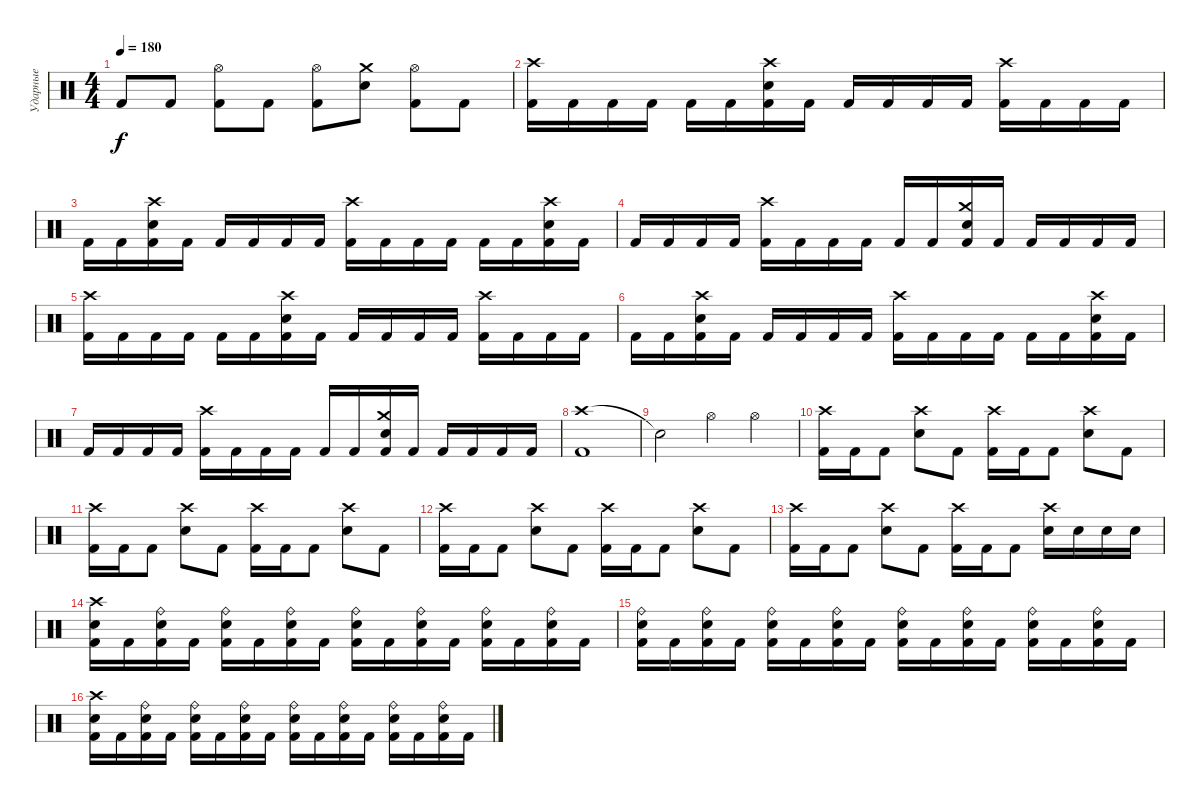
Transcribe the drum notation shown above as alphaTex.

\track ("Ударные" "Ударные") {instrument percussion}
\staff {score}
\articulation defaults
\ts (4 4)
\tempo 180
\clef neutral
\ks c "Kick (hit) 2".8{dy f} "Kick (hit) 2".8
("Hi-Hat (open)" "Kick (hit) 2").8 "Kick (hit) 2".8 ("Hi-Hat (open)" "Kick (hit) 2").8 ("Crash medium (hit)" "Electric Snare (hit)").8 ("Hi-Hat (open)" "Kick (hit) 2").8 "Kick (hit) 2".8 |
("Crash high (hit)" "Kick (hit) 2").16 "Kick (hit) 2".16 "Kick (hit) 2".16 "Kick (hit) 2".16 "Kick (hit) 2".16 "Kick (hit) 2".16 ("Crash high (hit)" "Electric Snare (hit)" "Kick (hit) 2").16 "Kick (hit) 2".16 "Kick (hit) 2".16 "Kick (hit) 2".16 "Kick (hit) 2".16 "Kick (hit) 2".16 ("Crash high (hit)" "Kick (hit) 2").16 "Kick (hit) 2".16 "Kick (hit) 2".16 "Kick (hit) 2".16 |
"Kick (hit) 2".16 "Kick (hit) 2".16 ("Crash high (hit)" "Electric Snare (hit)" "Kick (hit) 2").16 "Kick (hit) 2".16 "Kick (hit) 2".16 "Kick (hit) 2".16 "Kick (hit) 2".16 "Kick (hit) 2".16 ("Crash high (hit)" "Kick (hit) 2").16 "Kick (hit) 2".16 "Kick (hit) 2".16 "Kick (hit) 2".16 "Kick (hit) 2".16 "Kick (hit) 2".16 ("Crash high (hit)" "Electric Snare (hit)" "Kick (hit) 2").16 "Kick (hit) 2".16 |
"Kick (hit) 2".16 "Kick (hit) 2".16 "Kick (hit) 2".16 "Kick (hit) 2".16 ("Crash high (hit)" "Kick (hit) 2").16 "Kick (hit) 2".16 "Kick (hit) 2".16 "Kick (hit) 2".16 "Kick (hit) 2".16 "Kick (hit) 2".16 ("Crash medium (hit)" "Electric Snare (hit)" "Kick (hit) 2").16 "Kick (hit) 2".16 "Kick (hit) 2".16 "Kick (hit) 2".16 "Kick (hit) 2".16 "Kick (hit) 2".16 |
("Crash high (hit)" "Kick (hit) 2").16 "Kick (hit) 2".16 "Kick (hit) 2".16 "Kick (hit) 2".16 "Kick (hit) 2".16 "Kick (hit) 2".16 ("Crash high (hit)" "Electric Snare (hit)" "Kick (hit) 2").16 "Kick (hit) 2".16 "Kick (hit) 2".16 "Kick (hit) 2".16 "Kick (hit) 2".16 "Kick (hit) 2".16 ("Crash high (hit)" "Kick (hit) 2").16 "Kick (hit) 2".16 "Kick (hit) 2".16 "Kick (hit) 2".16 |
"Kick (hit) 2".16 "Kick (hit) 2".16 ("Crash high (hit)" "Electric Snare (hit)" "Kick (hit) 2").16 "Kick (hit) 2".16 "Kick (hit) 2".16 "Kick (hit) 2".16 "Kick (hit) 2".16 "Kick (hit) 2".16 ("Crash high (hit)" "Kick (hit) 2").16 "Kick (hit) 2".16 "Kick (hit) 2".16 "Kick (hit) 2".16 "Kick (hit) 2".16 "Kick (hit) 2".16 ("Crash high (hit)" "Electric Snare (hit)" "Kick (hit) 2").16 "Kick (hit) 2".16 |
"Kick (hit) 2".16 "Kick (hit) 2".16 "Kick (hit) 2".16 "Kick (hit) 2".16 ("Crash high (hit)" "Kick (hit) 2").16 "Kick (hit) 2".16 "Kick (hit) 2".16 "Kick (hit) 2".16 "Kick (hit) 2".16 "Kick (hit) 2".16 ("Crash medium (hit)" "Electric Snare (hit)" "Kick (hit) 2").16 "Kick (hit) 2".16 "Kick (hit) 2".16 "Kick (hit) 2".16 "Kick (hit) 2".16 "Kick (hit) 2".16 |
("Crash high (hit)" "Kick (hit) 2").1 |
"Snare (hit)"{t}.2 "Hi-Hat (open)".4 "Hi-Hat (open)".4 |
("Crash high (hit)" "Kick (hit) 2").16 "Kick (hit) 2".16 "Kick (hit) 2".8 ("Crash high (hit)" "Electric Snare (hit)").8 "Kick (hit) 2".8 ("Crash high (hit)" "Kick (hit) 2").16 "Kick (hit) 2".16 "Kick (hit) 2".8 ("Crash high (hit)" "Electric Snare (hit)").8 "Kick (hit) 2".8 |
("Crash high (hit)" "Kick (hit) 2").16 "Kick (hit) 2".16 "Kick (hit) 2".8 ("Crash high (hit)" "Electric Snare (hit)").8 "Kick (hit) 2".8 ("Crash high (hit)" "Kick (hit) 2").16 "Kick (hit) 2".16 "Kick (hit) 2".8 ("Crash high (hit)" "Electric Snare (hit)").8 "Kick (hit) 2".8 |
("Crash high (hit)" "Kick (hit) 2").16 "Kick (hit) 2".16 "Kick (hit) 2".8 ("Crash high (hit)" "Electric Snare (hit)").8 "Kick (hit) 2".8 ("Crash high (hit)" "Kick (hit) 2").16 "Kick (hit) 2".16 "Kick (hit) 2".8 ("Crash high (hit)" "Electric Snare (hit)").8 "Kick (hit) 2".8 |
("Crash high (hit)" "Kick (hit) 2").16 "Kick (hit) 2".16 "Kick (hit) 2".8 ("Crash high (hit)" "Electric Snare (hit)").8 "Kick (hit) 2".8 ("Crash high (hit)" "Kick (hit) 2").16 "Kick (hit) 2".16 "Kick (hit) 2".8 ("Crash high (hit)" "Electric Snare (hit)").16 "Electric Snare (hit)".16 "Electric Snare (hit)".16 "Electric Snare (hit)".16 |
("Crash high (hit)" "Electric Snare (hit)" "Kick (hit) 2").16 "Kick (hit) 2".16 ("Ride (bell)" "Electric Snare (hit)" "Kick (hit) 2").16 "Kick (hit) 2".16 ("Ride (bell)" "Electric Snare (hit)" "Kick (hit) 2").16 "Kick (hit) 2".16 ("Ride (bell)" "Electric Snare (hit)" "Kick (hit) 2").16 "Kick (hit) 2".16 ("Ride (bell)" "Electric Snare (hit)" "Kick (hit) 2").16 "Kick (hit) 2".16 ("Ride (bell)" "Electric Snare (hit)" "Kick (hit) 2").16 "Kick (hit) 2".16 ("Ride (bell)" "Electric Snare (hit)" "Kick (hit) 2").16 "Kick (hit) 2".16 ("Ride (bell)" "Electric Snare (hit)" "Kick (hit) 2").16 "Kick (hit) 2".16 |
("Ride (bell)" "Electric Snare (hit)" "Kick (hit) 2").16 "Kick (hit) 2".16 ("Ride (bell)" "Electric Snare (hit)" "Kick (hit) 2").16 "Kick (hit) 2".16 ("Ride (bell)" "Electric Snare (hit)" "Kick (hit) 2").16 "Kick (hit) 2".16 ("Ride (bell)" "Electric Snare (hit)" "Kick (hit) 2").16 "Kick (hit) 2".16 ("Ride (bell)" "Electric Snare (hit)" "Kick (hit) 2").16 "Kick (hit) 2".16 ("Ride (bell)" "Electric Snare (hit)" "Kick (hit) 2").16 "Kick (hit) 2".16 ("Ride (bell)" "Electric Snare (hit)" "Kick (hit) 2").16 "Kick (hit) 2".16 ("Ride (bell)" "Electric Snare (hit)" "Kick (hit) 2").16 "Kick (hit) 2".16 |
("Crash high (hit)" "Electric Snare (hit)" "Kick (hit) 2").16 "Kick (hit) 2".16 ("Ride (bell)" "Electric Snare (hit)" "Kick (hit) 2").16 "Kick (hit) 2".16 ("Ride (bell)" "Electric Snare (hit)" "Kick (hit) 2").16 "Kick (hit) 2".16 ("Ride (bell)" "Electric Snare (hit)" "Kick (hit) 2").16 "Kick (hit) 2".16 ("Ride (bell)" "Electric Snare (hit)" "Kick (hit) 2").16 "Kick (hit) 2".16 ("Ride (bell)" "Electric Snare (hit)" "Kick (hit) 2").16 "Kick (hit) 2".16 ("Ride (bell)" "Electric Snare (hit)" "Kick (hit) 2").16 "Kick (hit) 2".16 ("Ride (bell)" "Electric Snare (hit)" "Kick (hit) 2").16 "Kick (hit) 2".16
